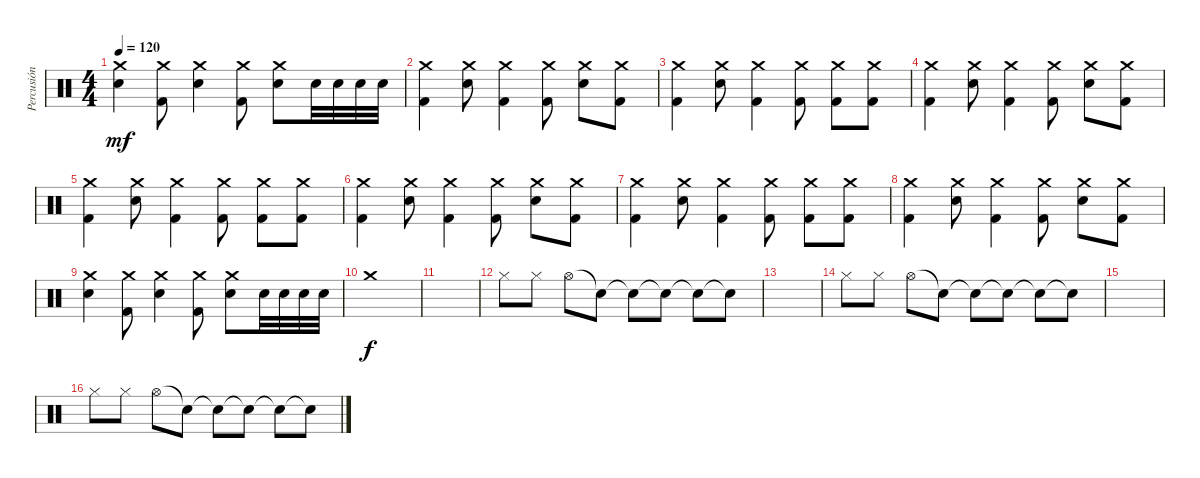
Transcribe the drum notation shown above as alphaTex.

\track ("Percusión" "Percusión") {instrument percussion}
\staff {score}
\articulation defaults
\ts (4 4)
\tempo 120
\clef neutral
\ks c
("Crash medium (hit)" "Electric Snare (hit)").4{dy mf} ("Crash medium (hit)" "Kick (hit) 2").8 ("Crash medium (hit)" "Electric Snare (hit)").4 ("Crash medium (hit)" "Kick (hit) 2").8 ("Crash medium (hit)" "Electric Snare (hit)").8 "Electric Snare (hit)".32 "Electric Snare (hit)".32 "Electric Snare (hit)".32 "Electric Snare (hit)".32 |
("Crash medium (hit)" "Kick (hit) 2").4 ("Crash medium (hit)" "Electric Snare (hit)").8 ("Crash medium (hit)" "Kick (hit) 2").4 ("Crash medium (hit)" "Kick (hit) 2").8 ("Crash medium (hit)" "Electric Snare (hit)").8 ("Crash medium (hit)" "Kick (hit) 2").8 |
("Crash medium (hit)" "Kick (hit) 2").4 ("Crash medium (hit)" "Electric Snare (hit)").8 ("Crash medium (hit)" "Kick (hit) 2").4 ("Crash medium (hit)" "Kick (hit) 2").8 ("Crash medium (hit)" "Kick (hit) 2").8 ("Crash medium (hit)" "Kick (hit) 2").8 |
("Crash medium (hit)" "Kick (hit) 2").4 ("Crash medium (hit)" "Electric Snare (hit)").8 ("Crash medium (hit)" "Kick (hit) 2").4 ("Crash medium (hit)" "Kick (hit) 2").8 ("Crash medium (hit)" "Electric Snare (hit)").8 ("Crash medium (hit)" "Kick (hit) 2").8 |
("Crash medium (hit)" "Kick (hit) 2").4 ("Crash medium (hit)" "Electric Snare (hit)").8 ("Crash medium (hit)" "Kick (hit) 2").4 ("Crash medium (hit)" "Kick (hit) 2").8 ("Crash medium (hit)" "Kick (hit) 2").8 ("Crash medium (hit)" "Kick (hit) 2").8 |
("Crash medium (hit)" "Kick (hit) 2").4 ("Crash medium (hit)" "Electric Snare (hit)").8 ("Crash medium (hit)" "Kick (hit) 2").4 ("Crash medium (hit)" "Kick (hit) 2").8 ("Crash medium (hit)" "Electric Snare (hit)").8 ("Crash medium (hit)" "Kick (hit) 2").8 |
("Crash medium (hit)" "Kick (hit) 2").4 ("Crash medium (hit)" "Electric Snare (hit)").8 ("Crash medium (hit)" "Kick (hit) 2").4 ("Crash medium (hit)" "Kick (hit) 2").8 ("Crash medium (hit)" "Kick (hit) 2").8 ("Crash medium (hit)" "Kick (hit) 2").8 |
("Crash medium (hit)" "Kick (hit) 2").4 ("Crash medium (hit)" "Electric Snare (hit)").8 ("Crash medium (hit)" "Kick (hit) 2").4 ("Crash medium (hit)" "Kick (hit) 2").8 ("Crash medium (hit)" "Electric Snare (hit)").8 ("Crash medium (hit)" "Kick (hit) 2").8 |
("Crash medium (hit)" "Electric Snare (hit)").4 ("Crash medium (hit)" "Kick (hit) 2").8 ("Crash medium (hit)" "Electric Snare (hit)").4 ("Crash medium (hit)" "Kick (hit) 2").8 ("Crash medium (hit)" "Electric Snare (hit)").8 "Electric Snare (hit)".32 "Electric Snare (hit)".32 "Electric Snare (hit)".32 "Electric Snare (hit)".32 |
"Crash medium (hit)".1{dy f} |
|
"Hi-Hat (closed)".8 "Hi-Hat (closed)".8 "Hi-Hat (open)".8 "Snare (hit)"{t}.8 "Snare (hit)"{t}.8 "Snare (hit)"{t}.8 "Snare (hit)"{t}.8 "Snare (hit)"{t}.8 |
|
"Hi-Hat (closed)".8 "Hi-Hat (closed)".8 "Hi-Hat (open)".8 "Snare (hit)"{t}.8 "Snare (hit)"{t}.8 "Snare (hit)"{t}.8 "Snare (hit)"{t}.8 "Snare (hit)"{t}.8 |
|
"Hi-Hat (closed)".8 "Hi-Hat (closed)".8 "Hi-Hat (open)".8 "Snare (hit)"{t}.8 "Snare (hit)"{t}.8 "Snare (hit)"{t}.8 "Snare (hit)"{t}.8 "Snare (hit)"{t}.8
